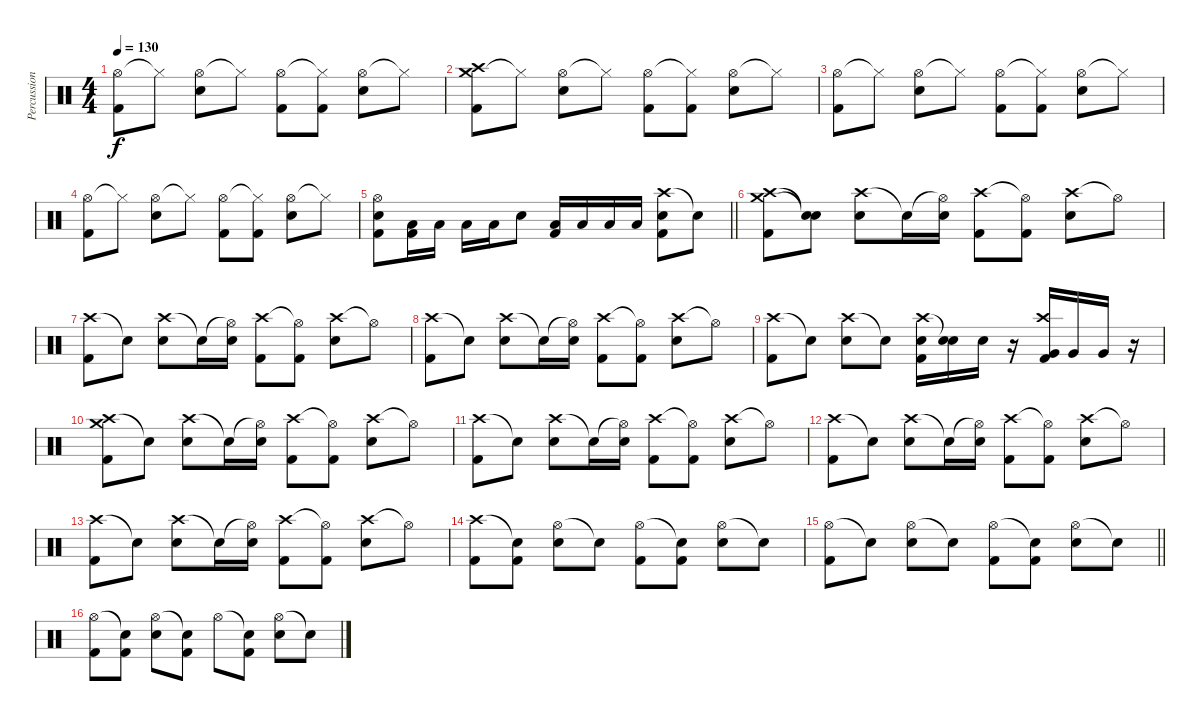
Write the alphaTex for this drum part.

\track ("Percussion" "Percussion") {instrument percussion}
\staff {score}
\articulation defaults
\ts (4 4)
\tempo 130
\clef neutral
\ks c
("Hi-Hat (open)" "Kick (hit) 2").8{dy f} "Hi-Hat (closed)"{t}.8 ("Hi-Hat (open)" "Electric Snare (hit)").8 "Hi-Hat (closed)"{t}.8 ("Hi-Hat (open)" "Kick (hit) 2").8 ("Hi-Hat (closed)"{t} "Kick (hit) 2").8 ("Hi-Hat (open)" "Electric Snare (hit)").8 "Hi-Hat (closed)"{t}.8 |
("Crash medium (hit)" "Crash high (hit)" "Kick (hit) 2").8 "Hi-Hat (closed)"{t}.8 ("Hi-Hat (open)" "Electric Snare (hit)").8 "Hi-Hat (closed)"{t}.8 ("Hi-Hat (open)" "Kick (hit) 2").8 ("Hi-Hat (closed)"{t} "Kick (hit) 2").8 ("Hi-Hat (open)" "Electric Snare (hit)").8 "Hi-Hat (closed)"{t}.8 |
("Hi-Hat (open)" "Kick (hit) 2").8 "Hi-Hat (closed)"{t}.8 ("Hi-Hat (open)" "Electric Snare (hit)").8 "Hi-Hat (closed)"{t}.8 ("Hi-Hat (open)" "Kick (hit) 2").8 ("Hi-Hat (closed)"{t} "Kick (hit) 2").8 ("Hi-Hat (open)" "Electric Snare (hit)").8 "Hi-Hat (closed)"{t}.8 |
("Hi-Hat (open)" "Kick (hit) 2").8 "Hi-Hat (closed)"{t}.8 ("Hi-Hat (open)" "Electric Snare (hit)").8 "Hi-Hat (closed)"{t}.8 ("Hi-Hat (open)" "Kick (hit) 2").8 ("Hi-Hat (closed)"{t} "Kick (hit) 2").8 ("Hi-Hat (open)" "Electric Snare (hit)").8 "Hi-Hat (closed)"{t}.8 |
\barLineRight lightlight
("Hi-Hat (open)" "Electric Snare (hit)" "Kick (hit) 2").8 ("Low Floor Tom (hit)" "Kick (hit) 2").16 "Low Floor Tom (hit)".16 "Low Floor Tom (hit)".16 "Low Floor Tom (hit)".16 "Electric Snare (hit)".8 ("Low Floor Tom (hit)" "Kick (hit) 2").16 "Low Floor Tom (hit)".16 "Low Floor Tom (hit)".16 "Low Floor Tom (hit)".16 ("Crash high (hit)" "Electric Snare (hit)" "Kick (hit) 2").8 "Snare (hit)"{t}.8 |
("Crash medium (hit)" "Crash high (hit)" "Kick (hit) 2").8 ("Snare (hit)"{t} "Snare (hit)"{t}).8 ("Crash high (hit)" "Electric Snare (hit)").8 "Snare (hit)"{t}.16 ("Hi-Hat (open)"{t} "Electric Snare (hit)").16 ("Crash high (hit)" "Kick (hit) 2").8 ("Hi-Hat (open)"{t} "Kick (hit) 2").8 ("Crash high (hit)" "Electric Snare (hit)").8 "Hi-Hat (open)"{t}.8 |
("Crash high (hit)" "Kick (hit) 2").8 "Snare (hit)"{t}.8 ("Crash high (hit)" "Electric Snare (hit)").8 "Snare (hit)"{t}.16 ("Hi-Hat (open)"{t} "Electric Snare (hit)").16 ("Crash high (hit)" "Kick (hit) 2").8 ("Hi-Hat (open)"{t} "Kick (hit) 2").8 ("Crash high (hit)" "Electric Snare (hit)").8 "Hi-Hat (open)"{t}.8 |
("Crash high (hit)" "Kick (hit) 2").8 "Snare (hit)"{t}.8 ("Crash high (hit)" "Electric Snare (hit)").8 "Snare (hit)"{t}.16 ("Hi-Hat (open)"{t} "Electric Snare (hit)").16 ("Crash high (hit)" "Kick (hit) 2").8 ("Hi-Hat (open)"{t} "Kick (hit) 2").8 ("Crash high (hit)" "Electric Snare (hit)").8 "Hi-Hat (open)"{t}.8 |
("Crash high (hit)" "Kick (hit) 2").8 "Snare (hit)"{t}.8 ("Crash high (hit)" "Electric Snare (hit)").8 "Snare (hit)"{t}.8 ("Crash high (hit)" "Electric Snare (hit)" "Kick (hit) 2").16 ("Snare (hit)"{t} "Electric Snare (hit)").16 "Electric Snare (hit)".16 r.16 ("Crash high (hit)" "Very Low Tom (hit)" "Kick (hit) 2").16 "Very Low Tom (hit)".16 "Very Low Tom (hit)".16 r.16 |
("Crash high (hit)" "Crash medium (hit)" "Kick (hit) 2").8 "Snare (hit)"{t}.8 ("Crash high (hit)" "Electric Snare (hit)").8 "Snare (hit)"{t}.16 ("Hi-Hat (open)"{t} "Electric Snare (hit)").16 ("Crash high (hit)" "Kick (hit) 2").8 ("Hi-Hat (open)"{t} "Kick (hit) 2").8 ("Crash high (hit)" "Electric Snare (hit)").8 "Hi-Hat (open)"{t}.8 |
("Crash high (hit)" "Kick (hit) 2").8 "Snare (hit)"{t}.8 ("Crash high (hit)" "Electric Snare (hit)").8 "Snare (hit)"{t}.16 ("Hi-Hat (open)"{t} "Electric Snare (hit)").16 ("Crash high (hit)" "Kick (hit) 2").8 ("Hi-Hat (open)"{t} "Kick (hit) 2").8 ("Crash high (hit)" "Electric Snare (hit)").8 "Hi-Hat (open)"{t}.8 |
("Crash high (hit)" "Kick (hit) 2").8 "Snare (hit)"{t}.8 ("Crash high (hit)" "Electric Snare (hit)").8 "Snare (hit)"{t}.16 ("Hi-Hat (open)"{t} "Electric Snare (hit)").16 ("Crash high (hit)" "Kick (hit) 2").8 ("Hi-Hat (open)"{t} "Kick (hit) 2").8 ("Crash high (hit)" "Electric Snare (hit)").8 "Hi-Hat (open)"{t}.8 |
("Crash high (hit)" "Kick (hit) 2").8 "Snare (hit)"{t}.8 ("Crash high (hit)" "Electric Snare (hit)").8 "Snare (hit)"{t}.16 ("Hi-Hat (open)"{t} "Electric Snare (hit)").16 ("Crash high (hit)" "Kick (hit) 2").8 ("Hi-Hat (open)"{t} "Kick (hit) 2").8 ("Crash high (hit)" "Electric Snare (hit)").8 "Hi-Hat (open)"{t}.8 |
("Crash high (hit)" "Kick (hit) 2").8 ("Snare (hit)"{t} "Kick (hit) 2").8 ("Hi-Hat (open)" "Electric Snare (hit)").8 "Snare (hit)"{t}.8 ("Hi-Hat (open)" "Kick (hit) 2").8 ("Snare (hit)"{t} "Kick (hit) 2").8 ("Hi-Hat (open)" "Electric Snare (hit)").8 "Snare (hit)"{t}.8 |
\barLineRight lightlight
("Hi-Hat (open)" "Kick (hit) 2").8 "Snare (hit)"{t}.8 ("Hi-Hat (open)" "Electric Snare (hit)").8 "Snare (hit)"{t}.8 ("Hi-Hat (open)" "Kick (hit) 2").8 ("Snare (hit)"{t} "Kick (hit) 2").8 ("Hi-Hat (open)" "Electric Snare (hit)").8 "Snare (hit)"{t}.8 |
("Hi-Hat (open)" "Kick (hit) 2").8 ("Snare (hit)"{t} "Kick (hit) 2").8 ("Hi-Hat (open)" "Electric Snare (hit)").8 ("Snare (hit)"{t} "Kick (hit) 2").8 "Hi-Hat (open)".8 ("Snare (hit)"{t} "Kick (hit) 2").8 ("Hi-Hat (open)" "Electric Snare (hit)").8 "Snare (hit)"{t}.8{volume 0}
